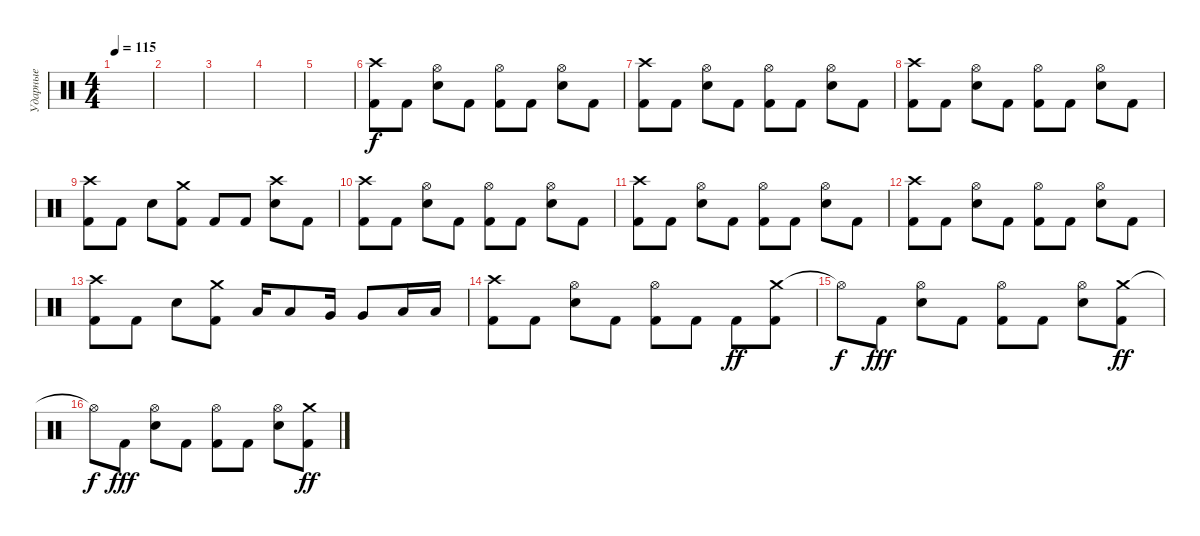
\track ("Ударные" "Ударные") {instrument percussion}
\staff {score}
\articulation defaults
\ts (4 4)
\tempo 115
\clef neutral
\ks c
|
|
|
|
|
("Crash high (hit)" "Kick (hit) 2").8 "Kick (hit) 2".8 ("Hi-Hat (open)" "Snare (hit) 2").8 "Kick (hit) 2".8 ("Hi-Hat (open)" "Kick (hit) 2").8 "Kick (hit) 2".8 ("Hi-Hat (open)" "Snare (hit) 2").8 "Kick (hit) 2".8 |
("Crash high (hit)" "Kick (hit) 2").8 "Kick (hit) 2".8 ("Hi-Hat (open)" "Snare (hit) 2").8 "Kick (hit) 2".8 ("Hi-Hat (open)" "Kick (hit) 2").8 "Kick (hit) 2".8 ("Hi-Hat (open)" "Snare (hit) 2").8 "Kick (hit) 2".8 |
("Crash high (hit)" "Kick (hit) 2").8 "Kick (hit) 2".8 ("Hi-Hat (open)" "Snare (hit) 2").8 "Kick (hit) 2".8 ("Hi-Hat (open)" "Kick (hit) 2").8 "Kick (hit) 2".8 ("Hi-Hat (open)" "Snare (hit) 2").8 "Kick (hit) 2".8 |
("Crash high (hit)" "Kick (hit) 2").8 "Kick (hit) 2".8 "Snare (hit) 2".8 ("Crash medium (hit)" "Kick (hit) 2").8 "Kick (hit) 2".8 "Kick (hit) 2".8 ("Crash high (hit)" "Snare (hit) 2").8 "Kick (hit) 2".8 |
("Crash high (hit)" "Kick (hit) 2").8 "Kick (hit) 2".8 ("Hi-Hat (open)" "Snare (hit) 2").8 "Kick (hit) 2".8 ("Hi-Hat (open)" "Kick (hit) 2").8 "Kick (hit) 2".8 ("Hi-Hat (open)" "Snare (hit) 2").8 "Kick (hit) 2".8 |
("Crash high (hit)" "Kick (hit) 2").8 "Kick (hit) 2".8 ("Hi-Hat (open)" "Snare (hit) 2").8 "Kick (hit) 2".8 ("Hi-Hat (open)" "Kick (hit) 2").8 "Kick (hit) 2".8 ("Hi-Hat (open)" "Snare (hit) 2").8 "Kick (hit) 2".8 |
("Crash high (hit)" "Kick (hit) 2").8 "Kick (hit) 2".8 ("Hi-Hat (open)" "Snare (hit) 2").8 "Kick (hit) 2".8 ("Hi-Hat (open)" "Kick (hit) 2").8 "Kick (hit) 2".8 ("Hi-Hat (open)" "Snare (hit) 2").8 "Kick (hit) 2".8 |
("Crash high (hit)" "Kick (hit) 2").8 "Kick (hit) 2".8 "Snare (hit) 2".8 ("Crash medium (hit)" "Kick (hit) 2").8 "Low Tom (hit)".16 "Low Tom (hit)".8 "Very Low Tom (hit)".16 "Very Low Tom (hit)".8 "Low Floor Tom (hit)".16 "Low Floor Tom (hit)".16 |
("Crash high (hit)" "Kick (hit) 2").8 "Kick (hit) 2".8 ("Hi-Hat (open)" "Snare (hit) 2").8 "Kick (hit) 2".8 ("Hi-Hat (open)" "Kick (hit) 2").8 "Kick (hit) 2".8 "Kick (hit) 2".8{dy ff} ("Crash medium (hit)" "Kick (hit) 2").8 |
"Hi-Hat (open)"{t}.8{dy f} "Kick (hit) 2".8{dy fff} ("Hi-Hat (open)" "Snare (hit) 2").8 "Kick (hit) 2".8 ("Hi-Hat (open)" "Kick (hit) 2").8 "Kick (hit) 2".8 ("Hi-Hat (open)" "Snare (hit) 2").8 ("Crash medium (hit)" "Kick (hit) 2").8{dy ff} |
"Hi-Hat (open)"{t}.8{dy f} "Kick (hit) 2".8{dy fff} ("Hi-Hat (open)" "Snare (hit) 2").8 "Kick (hit) 2".8 ("Hi-Hat (open)" "Kick (hit) 2").8 "Kick (hit) 2".8 ("Hi-Hat (open)" "Snare (hit) 2").8 ("Crash medium (hit)" "Kick (hit) 2").8{dy ff}
